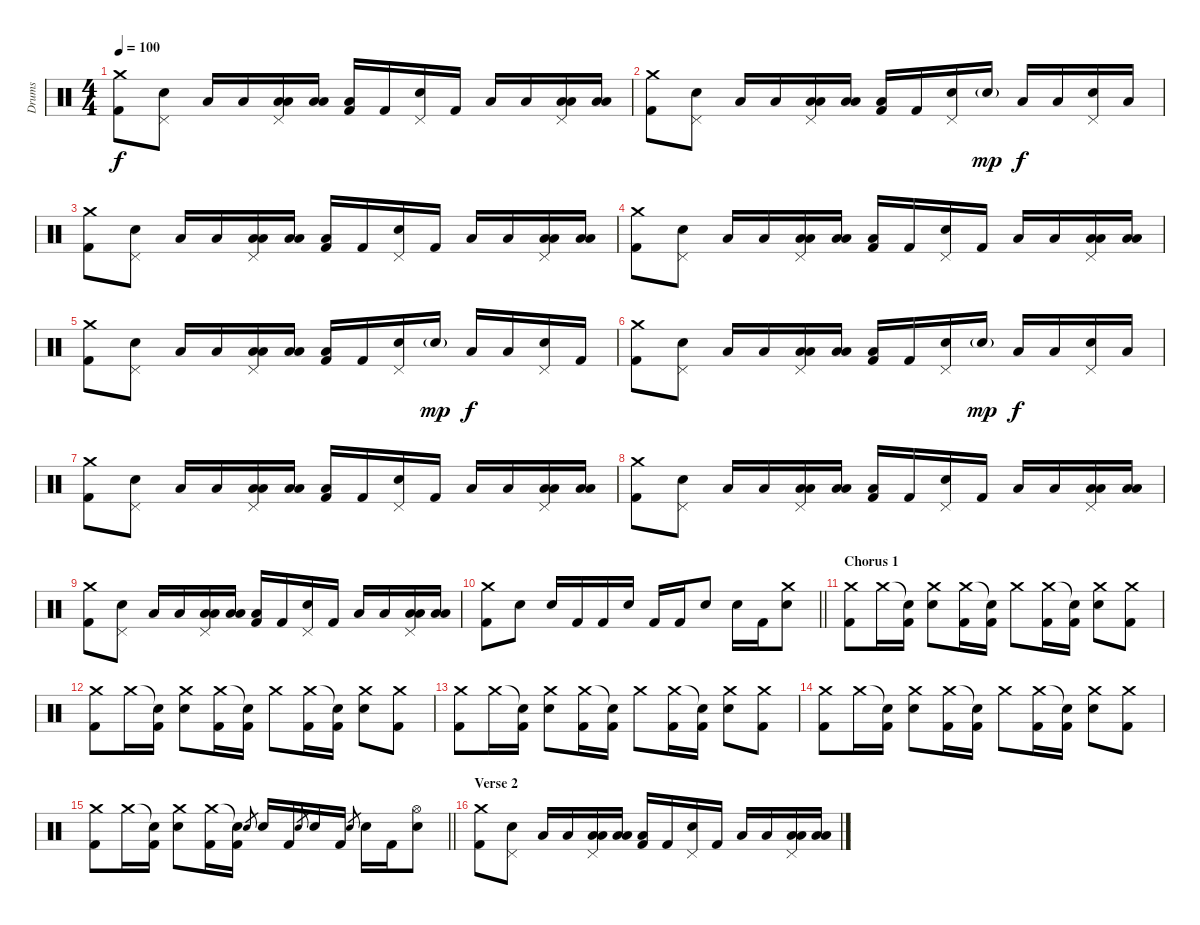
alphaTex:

\track ("Drums" "Drums") {instrument percussion}
\staff {score}
\articulation defaults
\ts (4 4)
\tempo 100
\clef neutral
\ks c
("Crash medium (hit)" "Kick (hit) 2").8{dy f} ("Pedal Hi-Hat (hit)" "Electric Snare (hit)").8 "Low Floor Tom (hit)".16 "Low Floor Tom (hit)".16 ("Pedal Hi-Hat (hit)" "Low Tom (hit)" "Low Floor Tom (hit)").16 ("Low Tom (hit)" "Low Floor Tom (hit)").16 ("Low Floor Tom (hit)" "Kick (hit) 2").16 "Kick (hit) 2".16 ("Pedal Hi-Hat (hit)" "Electric Snare (hit)").16 "Kick (hit) 2".16 "Low Floor Tom (hit)".16 "Low Floor Tom (hit)".16 ("Pedal Hi-Hat (hit)" "Low Tom (hit)" "Low Floor Tom (hit)").16 ("Low Tom (hit)" "Low Floor Tom (hit)").16 |
("Crash medium (hit)" "Kick (hit) 2").8 ("Pedal Hi-Hat (hit)" "Electric Snare (hit)").8 "Low Floor Tom (hit)".16 "Low Floor Tom (hit)".16 ("Pedal Hi-Hat (hit)" "Low Tom (hit)" "Low Floor Tom (hit)").16 ("Low Tom (hit)" "Low Floor Tom (hit)").16 ("Low Floor Tom (hit)" "Kick (hit) 2").16 "Kick (hit) 2".16 ("Pedal Hi-Hat (hit)" "Electric Snare (hit)").16 "Electric Snare (hit)"{g}.16{dy mp} "Low Floor Tom (hit)".16{dy f} "Low Floor Tom (hit)".16 ("Pedal Hi-Hat (hit)" "Electric Snare (hit)").16 "Low Floor Tom (hit)".16 |
("Crash medium (hit)" "Kick (hit) 2").8 ("Pedal Hi-Hat (hit)" "Electric Snare (hit)").8 "Low Floor Tom (hit)".16 "Low Floor Tom (hit)".16 ("Pedal Hi-Hat (hit)" "Low Tom (hit)" "Low Floor Tom (hit)").16 ("Low Tom (hit)" "Low Floor Tom (hit)").16 ("Low Floor Tom (hit)" "Kick (hit) 2").16 "Kick (hit) 2".16 ("Pedal Hi-Hat (hit)" "Electric Snare (hit)").16 "Kick (hit) 2".16 "Low Floor Tom (hit)".16 "Low Floor Tom (hit)".16 ("Pedal Hi-Hat (hit)" "Low Tom (hit)" "Low Floor Tom (hit)").16 ("Low Tom (hit)" "Low Floor Tom (hit)").16 |
("Crash medium (hit)" "Kick (hit) 2").8 ("Pedal Hi-Hat (hit)" "Electric Snare (hit)").8 "Low Floor Tom (hit)".16 "Low Floor Tom (hit)".16 ("Pedal Hi-Hat (hit)" "Low Tom (hit)" "Low Floor Tom (hit)").16 ("Low Tom (hit)" "Low Floor Tom (hit)").16 ("Low Floor Tom (hit)" "Kick (hit) 2").16 "Kick (hit) 2".16 ("Pedal Hi-Hat (hit)" "Electric Snare (hit)").16 "Kick (hit) 2".16 "Low Floor Tom (hit)".16 "Low Floor Tom (hit)".16 ("Pedal Hi-Hat (hit)" "Low Tom (hit)" "Low Floor Tom (hit)").16 ("Low Tom (hit)" "Low Floor Tom (hit)").16 |
("Crash medium (hit)" "Kick (hit) 2").8 ("Pedal Hi-Hat (hit)" "Electric Snare (hit)").8 "Low Floor Tom (hit)".16 "Low Floor Tom (hit)".16 ("Pedal Hi-Hat (hit)" "Low Tom (hit)" "Low Floor Tom (hit)").16 ("Low Tom (hit)" "Low Floor Tom (hit)").16 ("Low Floor Tom (hit)" "Kick (hit) 2").16 "Kick (hit) 2".16 ("Pedal Hi-Hat (hit)" "Electric Snare (hit)").16 "Electric Snare (hit)"{g}.16{dy mp} "Low Floor Tom (hit)".16{dy f} "Low Floor Tom (hit)".16 ("Pedal Hi-Hat (hit)" "Electric Snare (hit)").16 "Kick (hit) 2".16 |
("Crash medium (hit)" "Kick (hit) 2").8 ("Pedal Hi-Hat (hit)" "Electric Snare (hit)").8 "Low Floor Tom (hit)".16 "Low Floor Tom (hit)".16 ("Pedal Hi-Hat (hit)" "Low Tom (hit)" "Low Floor Tom (hit)").16 ("Low Tom (hit)" "Low Floor Tom (hit)").16 ("Low Floor Tom (hit)" "Kick (hit) 2").16 "Kick (hit) 2".16 ("Pedal Hi-Hat (hit)" "Electric Snare (hit)").16 "Electric Snare (hit)"{g}.16{dy mp} "Low Floor Tom (hit)".16{dy f} "Low Floor Tom (hit)".16 ("Pedal Hi-Hat (hit)" "Electric Snare (hit)").16 "Low Floor Tom (hit)".16 |
("Crash medium (hit)" "Kick (hit) 2").8 ("Pedal Hi-Hat (hit)" "Electric Snare (hit)").8 "Low Floor Tom (hit)".16 "Low Floor Tom (hit)".16 ("Pedal Hi-Hat (hit)" "Low Tom (hit)" "Low Floor Tom (hit)").16 ("Low Tom (hit)" "Low Floor Tom (hit)").16 ("Low Floor Tom (hit)" "Kick (hit) 2").16 "Kick (hit) 2".16 ("Pedal Hi-Hat (hit)" "Electric Snare (hit)").16 "Kick (hit) 2".16 "Low Floor Tom (hit)".16 "Low Floor Tom (hit)".16 ("Pedal Hi-Hat (hit)" "Low Tom (hit)" "Low Floor Tom (hit)").16 ("Low Tom (hit)" "Low Floor Tom (hit)").16 |
("Crash medium (hit)" "Kick (hit) 2").8 ("Pedal Hi-Hat (hit)" "Electric Snare (hit)").8 "Low Floor Tom (hit)".16 "Low Floor Tom (hit)".16 ("Pedal Hi-Hat (hit)" "Low Tom (hit)" "Low Floor Tom (hit)").16 ("Low Tom (hit)" "Low Floor Tom (hit)").16 ("Low Floor Tom (hit)" "Kick (hit) 2").16 "Kick (hit) 2".16 ("Pedal Hi-Hat (hit)" "Electric Snare (hit)").16 "Kick (hit) 2".16 "Low Floor Tom (hit)".16 "Low Floor Tom (hit)".16 ("Pedal Hi-Hat (hit)" "Low Tom (hit)" "Low Floor Tom (hit)").16 ("Low Tom (hit)" "Low Floor Tom (hit)").16 |
("Crash medium (hit)" "Kick (hit) 2").8 ("Pedal Hi-Hat (hit)" "Electric Snare (hit)").8 "Low Floor Tom (hit)".16 "Low Floor Tom (hit)".16 ("Pedal Hi-Hat (hit)" "Low Tom (hit)" "Low Floor Tom (hit)").16 ("Low Tom (hit)" "Low Floor Tom (hit)").16 ("Low Floor Tom (hit)" "Kick (hit) 2").16 "Kick (hit) 2".16 ("Pedal Hi-Hat (hit)" "Electric Snare (hit)").16 "Kick (hit) 2".16 "Low Floor Tom (hit)".16 "Low Floor Tom (hit)".16 ("Pedal Hi-Hat (hit)" "Low Tom (hit)" "Low Floor Tom (hit)").16 ("Low Tom (hit)" "Low Floor Tom (hit)").16 |
\barLineRight lightlight
("Crash medium (hit)" "Kick (hit) 2").8 "Electric Snare (hit)".8 "Electric Snare (hit)".16 "Kick (hit) 2".16 "Kick (hit) 2".16 "Electric Snare (hit)".16 "Kick (hit) 2".16 "Kick (hit) 2".16 "Electric Snare (hit)".8 "Electric Snare (hit)".16 "Kick (hit) 2".16 ("Crash medium (hit)" "Electric Snare (hit)").8 |
\section ("" "Chorus 1")
("Crash medium (hit)" "Kick (hit) 2").8 "Crash medium (hit)".16 ("Snare (hit)"{t} "Kick (hit) 2").16 ("Crash medium (hit)" "Electric Snare (hit)").8 ("Crash medium (hit)" "Kick (hit) 2").16 ("Snare (hit)"{t} "Kick (hit) 2").16 "Crash medium (hit)".8 ("Crash medium (hit)" "Kick (hit) 2").16 ("Snare (hit)"{t} "Kick (hit) 2").16 ("Crash medium (hit)" "Electric Snare (hit)").8 ("Crash medium (hit)" "Kick (hit) 2").8 |
("Crash medium (hit)" "Kick (hit) 2").8 "Crash medium (hit)".16 ("Snare (hit)"{t} "Kick (hit) 2").16 ("Crash medium (hit)" "Electric Snare (hit)").8 ("Crash medium (hit)" "Kick (hit) 2").16 ("Snare (hit)"{t} "Kick (hit) 2").16 "Crash medium (hit)".8 ("Crash medium (hit)" "Kick (hit) 2").16 ("Snare (hit)"{t} "Kick (hit) 2").16 ("Crash medium (hit)" "Electric Snare (hit)").8 ("Crash medium (hit)" "Kick (hit) 2").8 |
("Crash medium (hit)" "Kick (hit) 2").8 "Crash medium (hit)".16 ("Snare (hit)"{t} "Kick (hit) 2").16 ("Crash medium (hit)" "Electric Snare (hit)").8 ("Crash medium (hit)" "Kick (hit) 2").16 ("Snare (hit)"{t} "Kick (hit) 2").16 "Crash medium (hit)".8 ("Crash medium (hit)" "Kick (hit) 2").16 ("Snare (hit)"{t} "Kick (hit) 2").16 ("Crash medium (hit)" "Electric Snare (hit)").8 ("Crash medium (hit)" "Kick (hit) 2").8 |
("Crash medium (hit)" "Kick (hit) 2").8 "Crash medium (hit)".16 ("Snare (hit)"{t} "Kick (hit) 2").16 ("Crash medium (hit)" "Electric Snare (hit)").8 ("Crash medium (hit)" "Kick (hit) 2").16 ("Snare (hit)"{t} "Kick (hit) 2").16 "Crash medium (hit)".8 ("Crash medium (hit)" "Kick (hit) 2").16 ("Snare (hit)"{t} "Kick (hit) 2").16 ("Crash medium (hit)" "Electric Snare (hit)").8 ("Crash medium (hit)" "Kick (hit) 2").8 |
\barLineRight lightlight
("Crash medium (hit)" "Kick (hit) 2").8 "Crash medium (hit)".16 ("Snare (hit)"{t} "Kick (hit) 2").16 ("Crash medium (hit)" "Electric Snare (hit)").8 ("Crash medium (hit)" "Kick (hit) 2").16 ("Snare (hit)"{t} "Kick (hit) 2").16 "Electric Snare (hit)".8{gr} "Electric Snare (hit)".16 "Kick (hit) 2".16 "Electric Snare (hit)".8{gr} "Electric Snare (hit)".16 "Kick (hit) 2".16 "Electric Snare (hit)".8{gr} "Electric Snare (hit)".16 "Kick (hit) 2".16 ("Hi-Hat (open)" "Electric Snare (hit)").8 |
\section ("" "Verse 2")
("Crash medium (hit)" "Kick (hit) 2").8 ("Pedal Hi-Hat (hit)" "Electric Snare (hit)").8 "Low Floor Tom (hit)".16 "Low Floor Tom (hit)".16 ("Pedal Hi-Hat (hit)" "Low Tom (hit)" "Low Floor Tom (hit)").16 ("Low Tom (hit)" "Low Floor Tom (hit)").16 ("Low Floor Tom (hit)" "Kick (hit) 2").16 "Kick (hit) 2".16 ("Pedal Hi-Hat (hit)" "Electric Snare (hit)").16 "Kick (hit) 2".16 "Low Floor Tom (hit)".16 "Low Floor Tom (hit)".16 ("Pedal Hi-Hat (hit)" "Low Tom (hit)" "Low Floor Tom (hit)").16 ("Low Tom (hit)" "Low Floor Tom (hit)").16
